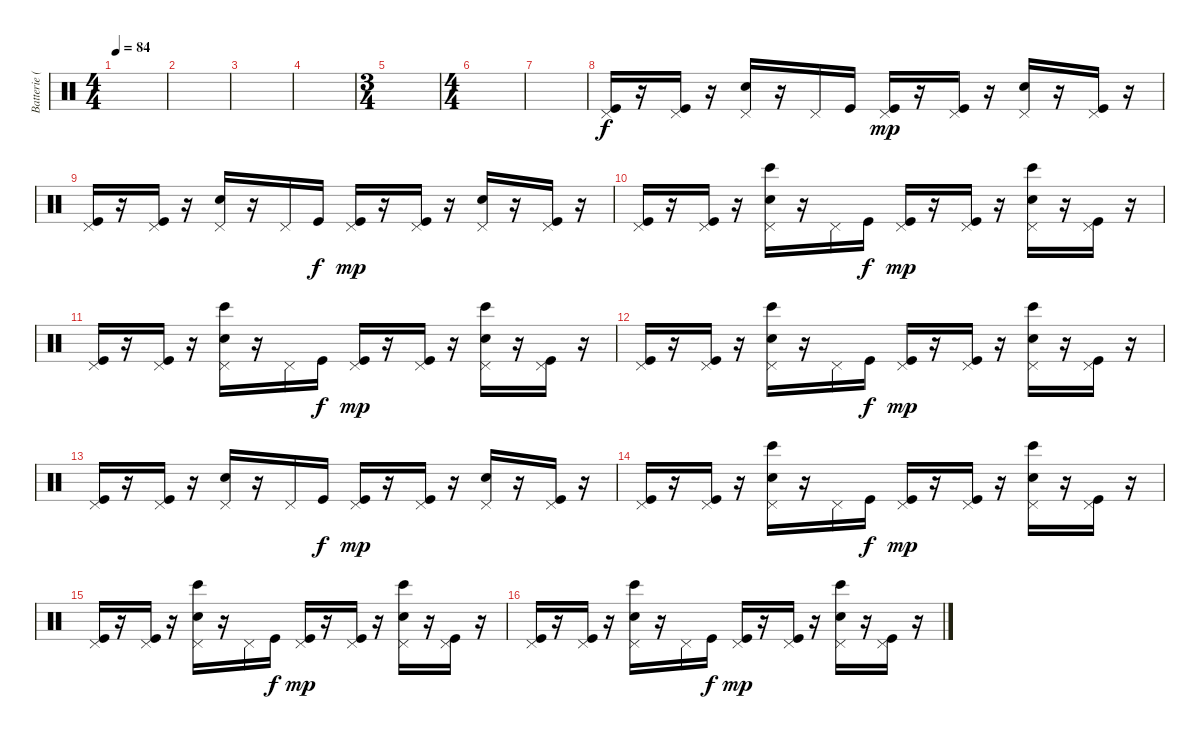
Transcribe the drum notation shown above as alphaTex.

\track ("Batterie (+hand claps)" "Batterie (") {instrument percussion}
\staff {score}
\articulation defaults
\ts (4 4)
\tempo 84
\clef neutral
\ks c
|
|
|
|
\ts (3 4)
|
\ts (4 4)
|
|
("Pedal Hi-Hat (hit)" "Kick (hit)").16 r.16 ("Pedal Hi-Hat (hit)" "Kick (hit)").16 r.16 ("Pedal Hi-Hat (hit)" "Snare (hit) 2").16 r.16 "Pedal Hi-Hat (hit)".16 "Kick (hit)".16{dy f} ("Pedal Hi-Hat (hit)" "Kick (hit)").16{dy mp} r.16 ("Pedal Hi-Hat (hit)" "Kick (hit)").16 r.16 ("Pedal Hi-Hat (hit)" "Snare (hit) 2").16 r.16 ("Pedal Hi-Hat (hit)" "Kick (hit)").16 r.16 |
("Pedal Hi-Hat (hit)" "Kick (hit)").16 r.16 ("Pedal Hi-Hat (hit)" "Kick (hit)").16 r.16 ("Pedal Hi-Hat (hit)" "Snare (hit) 2").16 r.16 "Pedal Hi-Hat (hit)".16 "Kick (hit)".16{dy f} ("Pedal Hi-Hat (hit)" "Kick (hit)").16{dy mp} r.16 ("Pedal Hi-Hat (hit)" "Kick (hit)").16 r.16 ("Pedal Hi-Hat (hit)" "Snare (hit) 2").16 r.16 ("Pedal Hi-Hat (hit)" "Kick (hit)").16 r.16 |
("Pedal Hi-Hat (hit)" "Kick (hit)").16 r.16 ("Pedal Hi-Hat (hit)" "Kick (hit)").16 r.16 ("Pedal Hi-Hat (hit)" "Hand Clap (hit)" "Bongo High (hit)").16 r.16 "Pedal Hi-Hat (hit)".16 "Kick (hit)".16{dy f} ("Pedal Hi-Hat (hit)" "Kick (hit)").16{dy mp} r.16 ("Pedal Hi-Hat (hit)" "Kick (hit)").16 r.16 ("Pedal Hi-Hat (hit)" "Hand Clap (hit)" "Bongo High (hit)").16 r.16 ("Pedal Hi-Hat (hit)" "Kick (hit)").16 r.16 |
("Pedal Hi-Hat (hit)" "Kick (hit)").16 r.16 ("Pedal Hi-Hat (hit)" "Kick (hit)").16 r.16 ("Pedal Hi-Hat (hit)" "Hand Clap (hit)" "Bongo High (hit)").16 r.16 "Pedal Hi-Hat (hit)".16 "Kick (hit)".16{dy f} ("Pedal Hi-Hat (hit)" "Kick (hit)").16{dy mp} r.16 ("Pedal Hi-Hat (hit)" "Kick (hit)").16 r.16 ("Pedal Hi-Hat (hit)" "Hand Clap (hit)" "Bongo High (hit)").16 r.16 ("Pedal Hi-Hat (hit)" "Kick (hit)").16 r.16 |
("Pedal Hi-Hat (hit)" "Kick (hit)").16 r.16 ("Pedal Hi-Hat (hit)" "Kick (hit)").16 r.16 ("Pedal Hi-Hat (hit)" "Hand Clap (hit)" "Bongo High (hit)").16 r.16 "Pedal Hi-Hat (hit)".16 "Kick (hit)".16{dy f} ("Pedal Hi-Hat (hit)" "Kick (hit)").16{dy mp} r.16 ("Pedal Hi-Hat (hit)" "Kick (hit)").16 r.16 ("Pedal Hi-Hat (hit)" "Hand Clap (hit)" "Bongo High (hit)").16 r.16 ("Pedal Hi-Hat (hit)" "Kick (hit)").16 r.16 |
("Pedal Hi-Hat (hit)" "Kick (hit)").16 r.16 ("Pedal Hi-Hat (hit)" "Kick (hit)").16 r.16 ("Pedal Hi-Hat (hit)" "Snare (hit) 2").16 r.16 "Pedal Hi-Hat (hit)".16 "Kick (hit)".16{dy f} ("Pedal Hi-Hat (hit)" "Kick (hit)").16{dy mp} r.16 ("Pedal Hi-Hat (hit)" "Kick (hit)").16 r.16 ("Pedal Hi-Hat (hit)" "Snare (hit) 2").16 r.16 ("Pedal Hi-Hat (hit)" "Kick (hit)").16 r.16 |
("Pedal Hi-Hat (hit)" "Kick (hit)").16 r.16 ("Pedal Hi-Hat (hit)" "Kick (hit)").16 r.16 ("Pedal Hi-Hat (hit)" "Hand Clap (hit)" "Bongo High (hit)").16 r.16 "Pedal Hi-Hat (hit)".16 "Kick (hit)".16{dy f} ("Pedal Hi-Hat (hit)" "Kick (hit)").16{dy mp} r.16 ("Pedal Hi-Hat (hit)" "Kick (hit)").16 r.16 ("Pedal Hi-Hat (hit)" "Hand Clap (hit)" "Bongo High (hit)").16 r.16 ("Pedal Hi-Hat (hit)" "Kick (hit)").16 r.16 |
("Pedal Hi-Hat (hit)" "Kick (hit)").16 r.16 ("Pedal Hi-Hat (hit)" "Kick (hit)").16 r.16 ("Pedal Hi-Hat (hit)" "Hand Clap (hit)" "Bongo High (hit)").16 r.16 "Pedal Hi-Hat (hit)".16 "Kick (hit)".16{dy f} ("Pedal Hi-Hat (hit)" "Kick (hit)").16{dy mp} r.16 ("Pedal Hi-Hat (hit)" "Kick (hit)").16 r.16 ("Pedal Hi-Hat (hit)" "Hand Clap (hit)" "Bongo High (hit)").16 r.16 ("Pedal Hi-Hat (hit)" "Kick (hit)").16 r.16 |
("Pedal Hi-Hat (hit)" "Kick (hit)").16 r.16 ("Pedal Hi-Hat (hit)" "Kick (hit)").16 r.16 ("Pedal Hi-Hat (hit)" "Hand Clap (hit)" "Bongo High (hit)").16 r.16 "Pedal Hi-Hat (hit)".16 "Kick (hit)".16{dy f} ("Pedal Hi-Hat (hit)" "Kick (hit)").16{dy mp} r.16 ("Pedal Hi-Hat (hit)" "Kick (hit)").16 r.16 ("Pedal Hi-Hat (hit)" "Hand Clap (hit)" "Bongo High (hit)").16 r.16 ("Pedal Hi-Hat (hit)" "Kick (hit)").16 r.16
